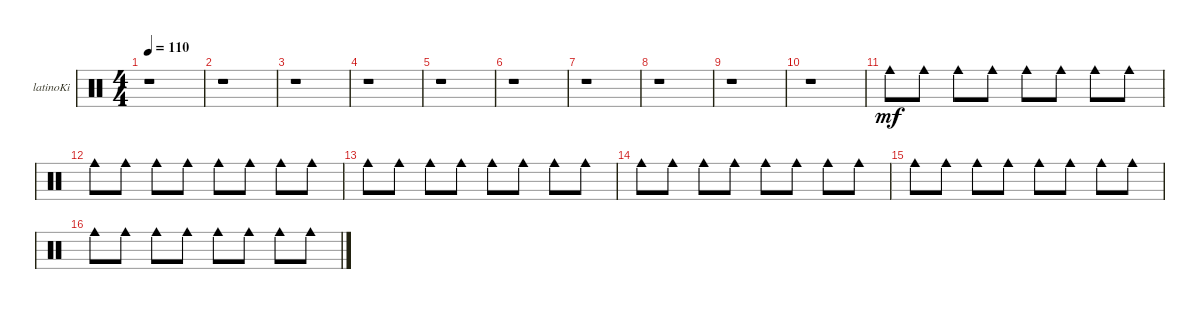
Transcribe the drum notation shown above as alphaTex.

\defaultSystemsLayout 4
\bracketExtendMode groupsimilarinstruments
\firstSystemTrackNameOrientation horizontal
\otherSystemsTrackNameOrientation horizontal
\track ("Tambourine" "latinoKi") {instrument percussion}
\staff {score}
\articulation defaults
\ts (4 4)
\tempo 110
\clef neutral
\scale
0.333333
\ks c
r.1{dy mf} |
\scale
0.333333 r.1 |
\scale
0.333333 r.1 |
\scale
0.333333 r.1 |
\scale
0.333333 r.1 |
\scale
0.333333 r.1 |
\scale
0.333333 r.1 |
\scale
0.333333 r.1 |
\scale
0.333333 r.1 |
\scale
0.333333 r.1 |
\scale
0.333333 "Cowbell medium (hit)".8 "Cowbell medium (hit)".8 "Cowbell medium (hit)".8 "Cowbell medium (hit)".8 "Cowbell medium (hit)".8 "Cowbell medium (hit)".8 "Cowbell medium (hit)".8 "Cowbell medium (hit)".8 |
"Cowbell medium (hit)".8 "Cowbell medium (hit)".8 "Cowbell medium (hit)".8 "Cowbell medium (hit)".8 "Cowbell medium (hit)".8 "Cowbell medium (hit)".8 "Cowbell medium (hit)".8 "Cowbell medium (hit)".8 |
"Cowbell medium (hit)".8 "Cowbell medium (hit)".8 "Cowbell medium (hit)".8 "Cowbell medium (hit)".8 "Cowbell medium (hit)".8 "Cowbell medium (hit)".8 "Cowbell medium (hit)".8 "Cowbell medium (hit)".8 |
"Cowbell medium (hit)".8 "Cowbell medium (hit)".8 "Cowbell medium (hit)".8 "Cowbell medium (hit)".8 "Cowbell medium (hit)".8 "Cowbell medium (hit)".8 "Cowbell medium (hit)".8 "Cowbell medium (hit)".8 |
"Cowbell medium (hit)".8 "Cowbell medium (hit)".8 "Cowbell medium (hit)".8 "Cowbell medium (hit)".8 "Cowbell medium (hit)".8 "Cowbell medium (hit)".8 "Cowbell medium (hit)".8 "Cowbell medium (hit)".8 |
"Cowbell medium (hit)".8 "Cowbell medium (hit)".8 "Cowbell medium (hit)".8 "Cowbell medium (hit)".8 "Cowbell medium (hit)".8 "Cowbell medium (hit)".8 "Cowbell medium (hit)".8 "Cowbell medium (hit)".8
